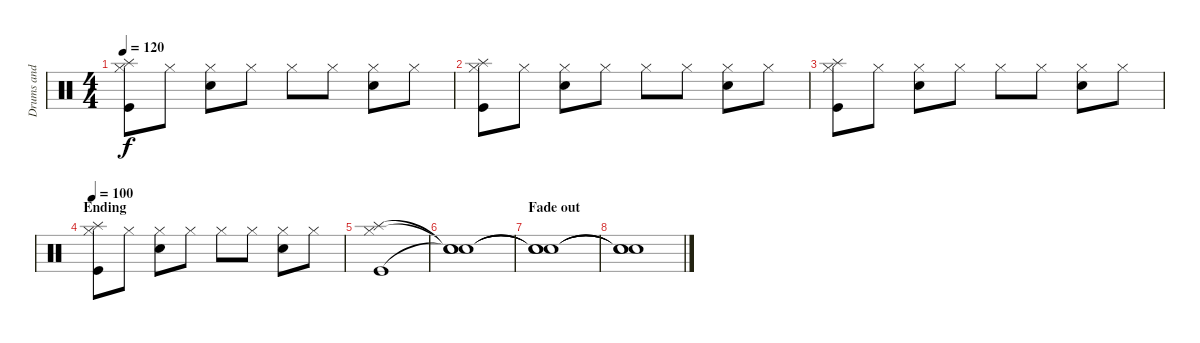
\track ("Drums and Percs" "Drums and ") {instrument percussion}
\staff {score}
\articulation defaults
\ts (4 4)
\tempo 120
\clef neutral
\ks c
("Splash (hit)" "Kick (hit)" "Hi-Hat (closed)").8{dy f} "Hi-Hat (closed)".8 ("Electric Snare (hit)" "Hi-Hat (closed)").8 "Hi-Hat (closed)".8 "Hi-Hat (closed)".8 "Hi-Hat (closed)".8 ("Electric Snare (hit)" "Hi-Hat (closed)").8 "Hi-Hat (closed)".8 |
("Splash (hit)" "Kick (hit)" "Hi-Hat (closed)").8 "Hi-Hat (closed)".8 ("Electric Snare (hit)" "Hi-Hat (closed)").8 "Hi-Hat (closed)".8 "Hi-Hat (closed)".8 "Hi-Hat (closed)".8 ("Electric Snare (hit)" "Hi-Hat (closed)").8 "Hi-Hat (closed)".8 |
("Splash (hit)" "Kick (hit)" "Hi-Hat (closed)").8 "Hi-Hat (closed)".8 ("Electric Snare (hit)" "Hi-Hat (closed)").8 "Hi-Hat (closed)".8 "Hi-Hat (closed)".8 "Hi-Hat (closed)".8 ("Electric Snare (hit)" "Hi-Hat (closed)").8 "Hi-Hat (closed)".8 |
\section ("" "Ending")
\tempo 100
("Splash (hit)" "Kick (hit)" "Hi-Hat (closed)").8 "Hi-Hat (closed)".8 ("Electric Snare (hit)" "Hi-Hat (closed)").8 "Hi-Hat (closed)".8 "Hi-Hat (closed)".8 "Hi-Hat (closed)".8 ("Electric Snare (hit)" "Hi-Hat (closed)").8 "Hi-Hat (closed)".8 |
("Splash (hit)" "Kick (hit)" "Hi-Hat (closed)").1 |
("Snare (hit)"{t} "Snare (hit)"{t} "Snare (hit)"{t}).1 |
\section ("" "Fade out")
("Snare (hit)"{t} "Snare (hit)"{t} "Snare (hit)"{t}).1 |
("Snare (hit)"{t} "Snare (hit)"{t} "Snare (hit)"{t}).1
